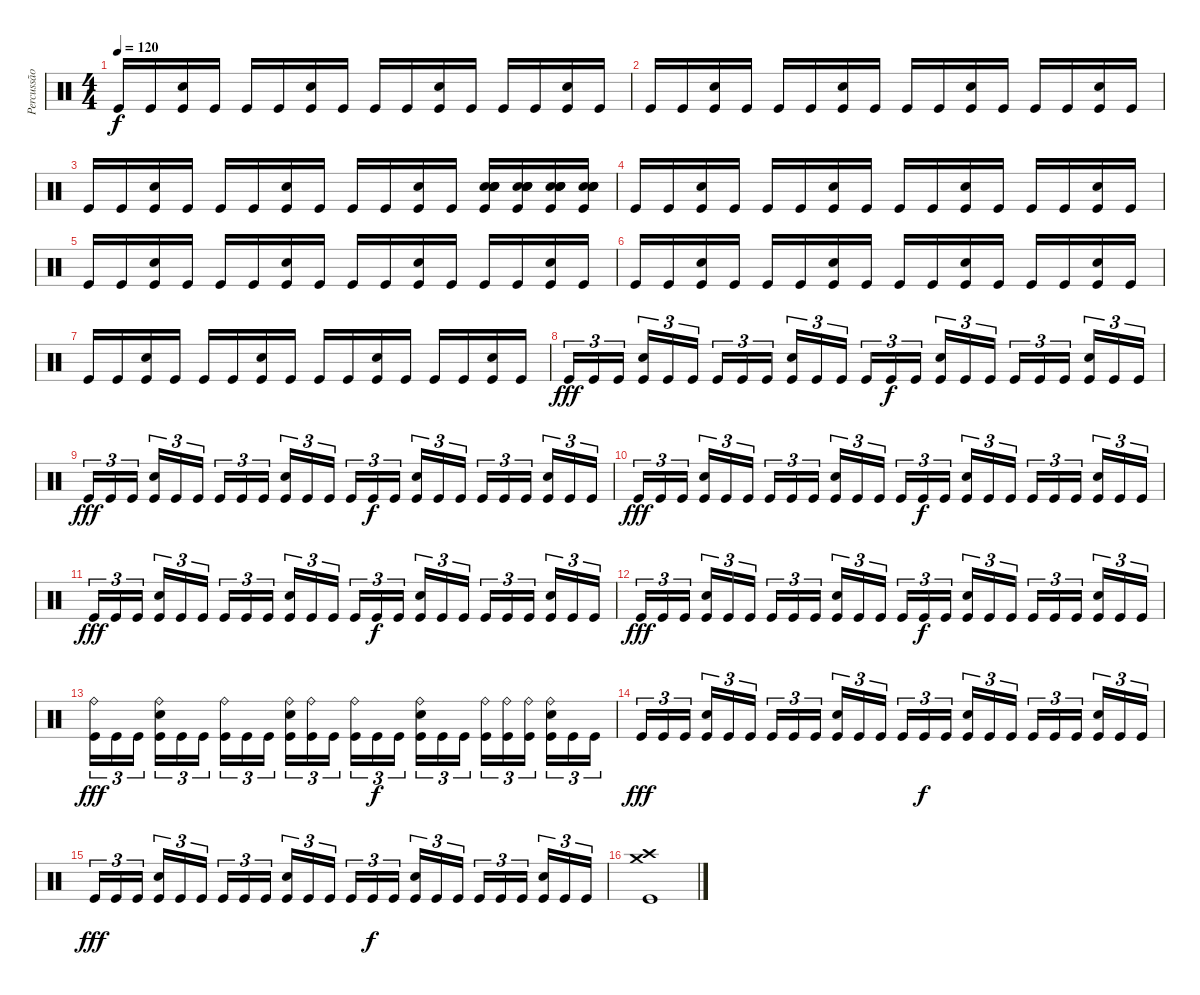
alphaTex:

\track ("Percussão" "Percussão") {instrument percussion}
\staff {score}
\articulation defaults
\ts (4 4)
\tempo 120
\clef neutral
\ks c "Kick (hit)".16{dy f} "Kick (hit)".16
("Kick (hit)" "Snare (hit) 2").16 "Kick (hit)".16 "Kick (hit)".16 "Kick (hit)".16 ("Kick (hit)" "Snare (hit) 2").16 "Kick (hit)".16 "Kick (hit)".16 "Kick (hit)".16 ("Kick (hit)" "Snare (hit) 2").16 "Kick (hit)".16 "Kick (hit)".16 "Kick (hit)".16 ("Kick (hit)" "Snare (hit) 2").16 "Kick (hit)".16 |
"Kick (hit)".16 "Kick (hit)".16 ("Kick (hit)" "Snare (hit) 2").16 "Kick (hit)".16 "Kick (hit)".16 "Kick (hit)".16 ("Kick (hit)" "Snare (hit) 2").16 "Kick (hit)".16 "Kick (hit)".16 "Kick (hit)".16 ("Kick (hit)" "Snare (hit) 2").16 "Kick (hit)".16 "Kick (hit)".16 "Kick (hit)".16 ("Kick (hit)" "Snare (hit) 2").16 "Kick (hit)".16 |
"Kick (hit)".16 "Kick (hit)".16 ("Kick (hit)" "Snare (hit) 2").16 "Kick (hit)".16 "Kick (hit)".16 "Kick (hit)".16 ("Kick (hit)" "Snare (hit) 2").16 "Kick (hit)".16 "Kick (hit)".16 "Kick (hit)".16 ("Kick (hit)" "Snare (hit) 2").16 "Kick (hit)".16 ("Kick (hit)" "Snare (hit) 2" "Snare (hit) 2" "Electric Snare (hit)" "Electric Snare (hit)").16 ("Kick (hit)" "Snare (hit) 2" "Snare (hit) 2" "Electric Snare (hit)" "Electric Snare (hit)").16 ("Kick (hit)" "Snare (hit) 2" "Snare (hit) 2" "Electric Snare (hit)" "Electric Snare (hit)").16 ("Kick (hit)" "Snare (hit) 2" "Snare (hit) 2" "Electric Snare (hit)" "Electric Snare (hit)").16 |
"Kick (hit)".16 "Kick (hit)".16 ("Kick (hit)" "Snare (hit) 2").16 "Kick (hit)".16 "Kick (hit)".16 "Kick (hit)".16 ("Kick (hit)" "Snare (hit) 2").16 "Kick (hit)".16 "Kick (hit)".16 "Kick (hit)".16 ("Kick (hit)" "Snare (hit) 2").16 "Kick (hit)".16 "Kick (hit)".16 "Kick (hit)".16 ("Kick (hit)" "Snare (hit) 2").16 "Kick (hit)".16 |
"Kick (hit)".16 "Kick (hit)".16 ("Kick (hit)" "Snare (hit) 2").16 "Kick (hit)".16 "Kick (hit)".16 "Kick (hit)".16 ("Kick (hit)" "Snare (hit) 2").16 "Kick (hit)".16 "Kick (hit)".16 "Kick (hit)".16 ("Kick (hit)" "Snare (hit) 2").16 "Kick (hit)".16 "Kick (hit)".16 "Kick (hit)".16 ("Kick (hit)" "Snare (hit) 2").16 "Kick (hit)".16 |
"Kick (hit)".16 "Kick (hit)".16 ("Kick (hit)" "Snare (hit) 2").16 "Kick (hit)".16 "Kick (hit)".16 "Kick (hit)".16 ("Kick (hit)" "Snare (hit) 2").16 "Kick (hit)".16 "Kick (hit)".16 "Kick (hit)".16 ("Kick (hit)" "Snare (hit) 2").16 "Kick (hit)".16 "Kick (hit)".16 "Kick (hit)".16 ("Kick (hit)" "Snare (hit) 2").16 "Kick (hit)".16 |
"Kick (hit)".16 "Kick (hit)".16 ("Kick (hit)" "Snare (hit) 2").16 "Kick (hit)".16 "Kick (hit)".16 "Kick (hit)".16 ("Kick (hit)" "Snare (hit) 2").16 "Kick (hit)".16 "Kick (hit)".16 "Kick (hit)".16 ("Kick (hit)" "Snare (hit) 2").16 "Kick (hit)".16 "Kick (hit)".16 "Kick (hit)".16 ("Kick (hit)" "Snare (hit) 2").16 "Kick (hit)".16 |
"Kick (hit)".16{tu (3 2) dy fff} "Kick (hit)".16{tu (3 2)} "Kick (hit)".16{tu (3 2)} ("Kick (hit)" "Snare (hit) 2").16{tu (3 2)} "Kick (hit)".16{tu (3 2)} "Kick (hit)".16{tu (3 2)} "Kick (hit)".16{tu (3 2)} "Kick (hit)".16{tu (3 2)} "Kick (hit)".16{tu (3 2)} ("Kick (hit)" "Snare (hit) 2").16{tu (3 2)} "Kick (hit)".16{tu (3 2)} "Kick (hit)".16{tu (3 2)} "Kick (hit)".16{tu (3 2)} "Kick (hit)".16{tu (3 2) dy f} "Kick (hit)".16{tu (3 2)} ("Kick (hit)" "Snare (hit) 2").16{tu (3 2)} "Kick (hit)".16{tu (3 2)} "Kick (hit)".16{tu (3 2)} "Kick (hit)".16{tu (3 2)} "Kick (hit)".16{tu (3 2)} "Kick (hit)".16{tu (3 2)} ("Kick (hit)" "Snare (hit) 2").16{tu (3 2)} "Kick (hit)".16{tu (3 2)} "Kick (hit)".16{tu (3 2)} |
"Kick (hit)".16{tu (3 2) dy fff} "Kick (hit)".16{tu (3 2)} "Kick (hit)".16{tu (3 2)} ("Kick (hit)" "Snare (hit) 2").16{tu (3 2)} "Kick (hit)".16{tu (3 2)} "Kick (hit)".16{tu (3 2)} "Kick (hit)".16{tu (3 2)} "Kick (hit)".16{tu (3 2)} "Kick (hit)".16{tu (3 2)} ("Kick (hit)" "Snare (hit) 2").16{tu (3 2)} "Kick (hit)".16{tu (3 2)} "Kick (hit)".16{tu (3 2)} "Kick (hit)".16{tu (3 2)} "Kick (hit)".16{tu (3 2) dy f} "Kick (hit)".16{tu (3 2)} ("Kick (hit)" "Snare (hit) 2").16{tu (3 2)} "Kick (hit)".16{tu (3 2)} "Kick (hit)".16{tu (3 2)} "Kick (hit)".16{tu (3 2)} "Kick (hit)".16{tu (3 2)} "Kick (hit)".16{tu (3 2)} ("Kick (hit)" "Snare (hit) 2").16{tu (3 2)} "Kick (hit)".16{tu (3 2)} "Kick (hit)".16{tu (3 2)} |
"Kick (hit)".16{tu (3 2) dy fff} "Kick (hit)".16{tu (3 2)} "Kick (hit)".16{tu (3 2)} ("Kick (hit)" "Snare (hit) 2").16{tu (3 2)} "Kick (hit)".16{tu (3 2)} "Kick (hit)".16{tu (3 2)} "Kick (hit)".16{tu (3 2)} "Kick (hit)".16{tu (3 2)} "Kick (hit)".16{tu (3 2)} ("Kick (hit)" "Snare (hit) 2").16{tu (3 2)} "Kick (hit)".16{tu (3 2)} "Kick (hit)".16{tu (3 2)} "Kick (hit)".16{tu (3 2)} "Kick (hit)".16{tu (3 2) dy f} "Kick (hit)".16{tu (3 2)} ("Kick (hit)" "Snare (hit) 2").16{tu (3 2)} "Kick (hit)".16{tu (3 2)} "Kick (hit)".16{tu (3 2)} "Kick (hit)".16{tu (3 2)} "Kick (hit)".16{tu (3 2)} "Kick (hit)".16{tu (3 2)} ("Kick (hit)" "Snare (hit) 2").16{tu (3 2)} "Kick (hit)".16{tu (3 2)} "Kick (hit)".16{tu (3 2)} |
"Kick (hit)".16{tu (3 2) dy fff} "Kick (hit)".16{tu (3 2)} "Kick (hit)".16{tu (3 2)} ("Kick (hit)" "Snare (hit) 2").16{tu (3 2)} "Kick (hit)".16{tu (3 2)} "Kick (hit)".16{tu (3 2)} "Kick (hit)".16{tu (3 2)} "Kick (hit)".16{tu (3 2)} "Kick (hit)".16{tu (3 2)} ("Kick (hit)" "Snare (hit) 2").16{tu (3 2)} "Kick (hit)".16{tu (3 2)} "Kick (hit)".16{tu (3 2)} "Kick (hit)".16{tu (3 2)} "Kick (hit)".16{tu (3 2) dy f} "Kick (hit)".16{tu (3 2)} ("Kick (hit)" "Snare (hit) 2").16{tu (3 2)} "Kick (hit)".16{tu (3 2)} "Kick (hit)".16{tu (3 2)} "Kick (hit)".16{tu (3 2)} "Kick (hit)".16{tu (3 2)} "Kick (hit)".16{tu (3 2)} ("Kick (hit)" "Snare (hit) 2").16{tu (3 2)} "Kick (hit)".16{tu (3 2)} "Kick (hit)".16{tu (3 2)} |
"Kick (hit)".16{tu (3 2) dy fff} "Kick (hit)".16{tu (3 2)} "Kick (hit)".16{tu (3 2)} ("Kick (hit)" "Snare (hit) 2").16{tu (3 2)} "Kick (hit)".16{tu (3 2)} "Kick (hit)".16{tu (3 2)} "Kick (hit)".16{tu (3 2)} "Kick (hit)".16{tu (3 2)} "Kick (hit)".16{tu (3 2)} ("Kick (hit)" "Snare (hit) 2").16{tu (3 2)} "Kick (hit)".16{tu (3 2)} "Kick (hit)".16{tu (3 2)} "Kick (hit)".16{tu (3 2)} "Kick (hit)".16{tu (3 2) dy f} "Kick (hit)".16{tu (3 2)} ("Kick (hit)" "Snare (hit) 2").16{tu (3 2)} "Kick (hit)".16{tu (3 2)} "Kick (hit)".16{tu (3 2)} "Kick (hit)".16{tu (3 2)} "Kick (hit)".16{tu (3 2)} "Kick (hit)".16{tu (3 2)} ("Kick (hit)" "Snare (hit) 2").16{tu (3 2)} "Kick (hit)".16{tu (3 2)} "Kick (hit)".16{tu (3 2)} |
("Kick (hit)" "Ride (bell)").16{tu (3 2) dy fff} "Kick (hit)".16{tu (3 2)} "Kick (hit)".16{tu (3 2)} ("Kick (hit)" "Snare (hit) 2" "Ride (bell)").16{tu (3 2)} "Kick (hit)".16{tu (3 2)} "Kick (hit)".16{tu (3 2)} ("Kick (hit)" "Ride (bell)").16{tu (3 2)} "Kick (hit)".16{tu (3 2)} "Kick (hit)".16{tu (3 2)} ("Kick (hit)" "Snare (hit) 2" "Ride (bell)").16{tu (3 2)} ("Kick (hit)" "Ride (bell)").16{tu (3 2)} "Kick (hit)".16{tu (3 2)} ("Kick (hit)" "Ride (bell)").16{tu (3 2)} "Kick (hit)".16{tu (3 2) dy f} "Kick (hit)".16{tu (3 2)} ("Kick (hit)" "Snare (hit) 2" "Ride (bell)").16{tu (3 2)} "Kick (hit)".16{tu (3 2)} "Kick (hit)".16{tu (3 2)} ("Kick (hit)" "Ride (bell)").16{tu (3 2)} ("Kick (hit)" "Ride (bell)").16{tu (3 2)} ("Kick (hit)" "Ride (bell)").16{tu (3 2)} ("Kick (hit)" "Snare (hit) 2" "Ride (bell)").16{tu (3 2)} "Kick (hit)".16{tu (3 2)} "Kick (hit)".16{tu (3 2)} |
"Kick (hit)".16{tu (3 2) dy fff} "Kick (hit)".16{tu (3 2)} "Kick (hit)".16{tu (3 2)} ("Kick (hit)" "Snare (hit) 2").16{tu (3 2)} "Kick (hit)".16{tu (3 2)} "Kick (hit)".16{tu (3 2)} "Kick (hit)".16{tu (3 2)} "Kick (hit)".16{tu (3 2)} "Kick (hit)".16{tu (3 2)} ("Kick (hit)" "Snare (hit) 2").16{tu (3 2)} "Kick (hit)".16{tu (3 2)} "Kick (hit)".16{tu (3 2)} "Kick (hit)".16{tu (3 2)} "Kick (hit)".16{tu (3 2) dy f} "Kick (hit)".16{tu (3 2)} ("Kick (hit)" "Snare (hit) 2").16{tu (3 2)} "Kick (hit)".16{tu (3 2)} "Kick (hit)".16{tu (3 2)} "Kick (hit)".16{tu (3 2)} "Kick (hit)".16{tu (3 2)} "Kick (hit)".16{tu (3 2)} ("Kick (hit)" "Snare (hit) 2").16{tu (3 2)} "Kick (hit)".16{tu (3 2)} "Kick (hit)".16{tu (3 2)} |
"Kick (hit)".16{tu (3 2) dy fff} "Kick (hit)".16{tu (3 2)} "Kick (hit)".16{tu (3 2)} ("Kick (hit)" "Snare (hit) 2").16{tu (3 2)} "Kick (hit)".16{tu (3 2)} "Kick (hit)".16{tu (3 2)} "Kick (hit)".16{tu (3 2)} "Kick (hit)".16{tu (3 2)} "Kick (hit)".16{tu (3 2)} ("Kick (hit)" "Snare (hit) 2").16{tu (3 2)} "Kick (hit)".16{tu (3 2)} "Kick (hit)".16{tu (3 2)} "Kick (hit)".16{tu (3 2)} "Kick (hit)".16{tu (3 2) dy f} "Kick (hit)".16{tu (3 2)} ("Kick (hit)" "Snare (hit) 2").16{tu (3 2)} "Kick (hit)".16{tu (3 2)} "Kick (hit)".16{tu (3 2)} "Kick (hit)".16{tu (3 2)} "Kick (hit)".16{tu (3 2)} "Kick (hit)".16{tu (3 2)} ("Kick (hit)" "Snare (hit) 2").16{tu (3 2)} "Kick (hit)".16{tu (3 2)} "Kick (hit)".16{tu (3 2)} |
("Kick (hit)" "Crash medium (hit)" "Crash high (hit)").1
